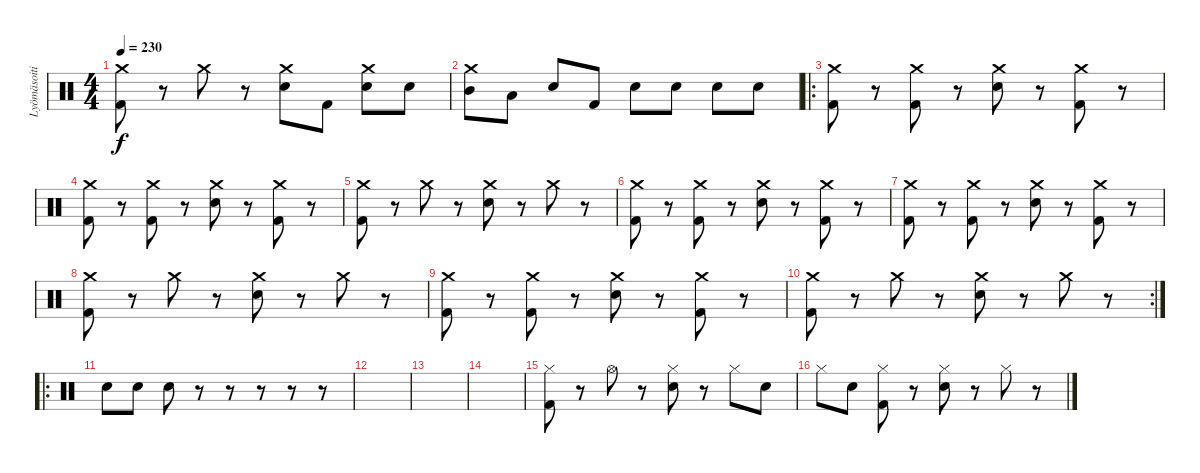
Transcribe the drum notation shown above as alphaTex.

\track ("Lyömäsoitin" "Lyömäsoiti") {instrument percussion}
\staff {score}
\articulation defaults
\ts (4 4)
\tempo 230
\clef neutral
\ks c
("Crash medium (hit)" "Kick (hit) 2").8{dy f} r.8 "Crash medium (hit)".8 r.8 ("Crash medium (hit)" "Electric Snare (hit)").8 "Kick (hit) 2".8 ("Crash medium (hit)" "Electric Snare (hit)").8 "Electric Snare (hit)".8 |
("Crash medium (hit)" "Mid Tom (hit)").8 "Low Tom (hit)".8 "Electric Snare (hit)".8 "Kick (hit) 2".8 "Electric Snare (hit)".8 "Electric Snare (hit)".8 "Electric Snare (hit)".8 "Electric Snare (hit)".8 |
\ro
("Crash medium (hit)" "Kick (hit) 2").8 r.8 ("Crash medium (hit)" "Kick (hit) 2").8 r.8 ("Crash medium (hit)" "Electric Snare (hit)").8 r.8 ("Crash medium (hit)" "Kick (hit) 2").8 r.8 |
("Crash medium (hit)" "Kick (hit) 2").8 r.8 ("Crash medium (hit)" "Kick (hit) 2").8 r.8 ("Crash medium (hit)" "Electric Snare (hit)").8 r.8 ("Crash medium (hit)" "Kick (hit) 2").8 r.8 |
("Crash medium (hit)" "Kick (hit) 2").8 r.8 "Crash medium (hit)".8 r.8 ("Crash medium (hit)" "Electric Snare (hit)").8 r.8 "Crash medium (hit)".8 r.8 |
("Crash medium (hit)" "Kick (hit) 2").8 r.8 ("Crash medium (hit)" "Kick (hit) 2").8 r.8 ("Crash medium (hit)" "Electric Snare (hit)").8 r.8 ("Crash medium (hit)" "Kick (hit) 2").8 r.8 |
("Crash medium (hit)" "Kick (hit) 2").8 r.8 ("Crash medium (hit)" "Kick (hit) 2").8 r.8 ("Crash medium (hit)" "Electric Snare (hit)").8 r.8 ("Crash medium (hit)" "Kick (hit) 2").8 r.8 |
("Crash medium (hit)" "Kick (hit) 2").8 r.8 "Crash medium (hit)".8 r.8 ("Crash medium (hit)" "Electric Snare (hit)").8 r.8 "Crash medium (hit)".8 r.8 |
("Crash medium (hit)" "Kick (hit) 2").8 r.8 ("Crash medium (hit)" "Kick (hit) 2").8 r.8 ("Crash medium (hit)" "Electric Snare (hit)").8 r.8 ("Crash medium (hit)" "Kick (hit) 2").8 r.8 |
\rc 2
("Crash medium (hit)" "Kick (hit) 2").8 r.8 "Crash medium (hit)".8 r.8 ("Crash medium (hit)" "Electric Snare (hit)").8 r.8 "Crash medium (hit)".8 r.8 |
\ro "Electric Snare (hit)".8 "Electric Snare (hit)".8 "Electric Snare (hit)".8
r.8 r.8 r.8 r.8 r.8 |
|
|
|
("Hi-Hat (closed)" "Kick (hit) 2").8 r.8 "Hi-Hat (open)".8 r.8 ("Hi-Hat (closed)" "Electric Snare (hit)").8 r.8 "Hi-Hat (closed)".8 "Electric Snare (hit)".8 |
"Hi-Hat (closed)".8 "Electric Snare (hit)".8 ("Hi-Hat (closed)" "Kick (hit) 2").8 r.8 ("Hi-Hat (closed)" "Electric Snare (hit)").8 r.8 "Hi-Hat (closed)".8 r.8
